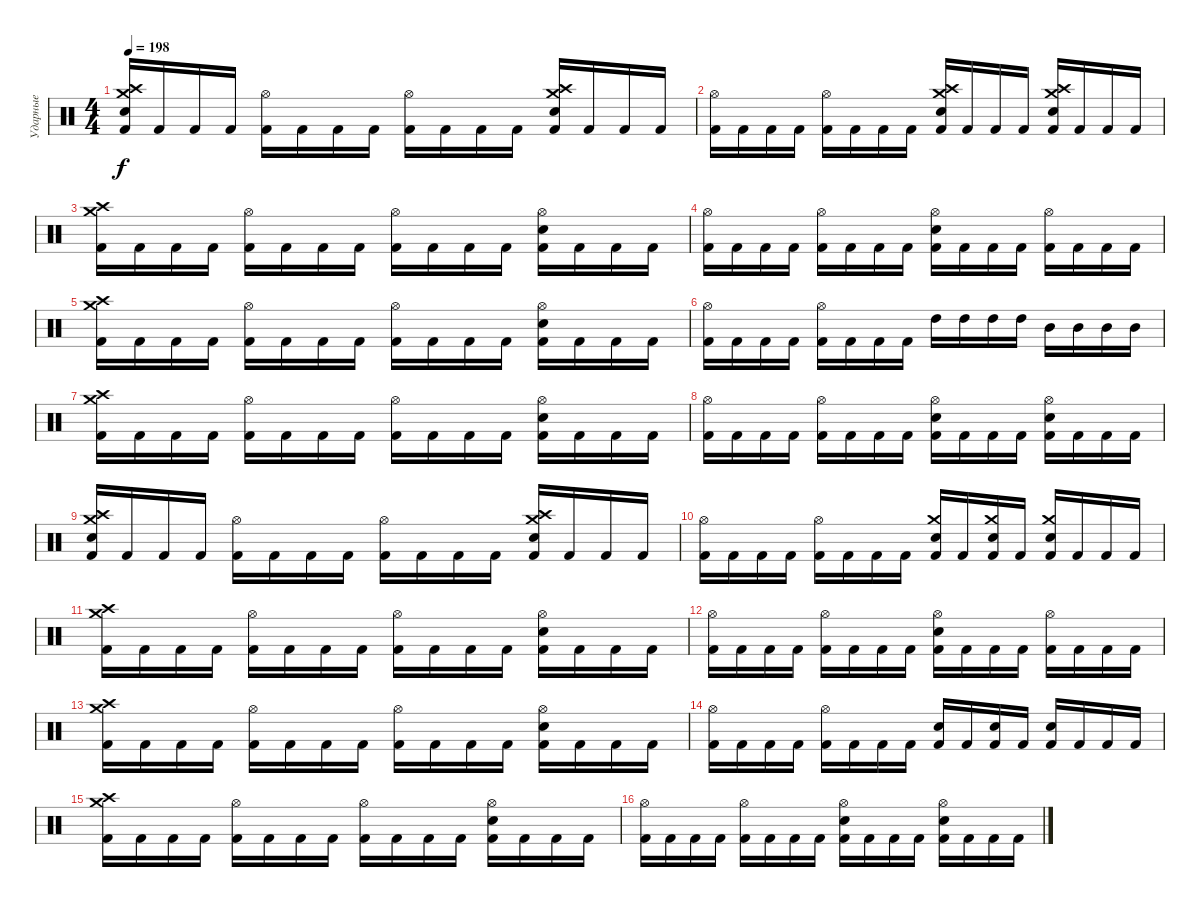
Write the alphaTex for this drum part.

\track ("Ударные" "Ударные") {instrument percussion}
\staff {score}
\articulation defaults
\ts (4 4)
\tempo 198
\clef neutral
\ks c
("Kick (hit) 2" "Crash medium (hit)" "Crash high (hit)" "Electric Snare (hit)").16{dy f} "Kick (hit) 2".16 "Kick (hit) 2".16 "Kick (hit) 2".16 ("Kick (hit) 2" "Hi-Hat (open)").16 "Kick (hit) 2".16 "Kick (hit) 2".16 "Kick (hit) 2".16 ("Kick (hit) 2" "Hi-Hat (open)").16 "Kick (hit) 2".16 "Kick (hit) 2".16 "Kick (hit) 2".16 ("Kick (hit) 2" "Crash medium (hit)" "Crash high (hit)" "Electric Snare (hit)").16 "Kick (hit) 2".16 "Kick (hit) 2".16 "Kick (hit) 2".16 |
("Kick (hit) 2" "Hi-Hat (open)").16 "Kick (hit) 2".16 "Kick (hit) 2".16 "Kick (hit) 2".16 ("Kick (hit) 2" "Hi-Hat (open)").16 "Kick (hit) 2".16 "Kick (hit) 2".16 "Kick (hit) 2".16 ("Kick (hit) 2" "Crash high (hit)" "Electric Snare (hit)" "Crash medium (hit)").16 "Kick (hit) 2".16 "Kick (hit) 2".16 "Kick (hit) 2".16 ("Kick (hit) 2" "Crash high (hit)" "Electric Snare (hit)" "Crash medium (hit)").16 "Kick (hit) 2".16 "Kick (hit) 2".16 "Kick (hit) 2".16 |
("Kick (hit) 2" "Crash medium (hit)" "Crash high (hit)").16 "Kick (hit) 2".16 "Kick (hit) 2".16 "Kick (hit) 2".16 ("Kick (hit) 2" "Hi-Hat (open)").16 "Kick (hit) 2".16 "Kick (hit) 2".16 "Kick (hit) 2".16 ("Kick (hit) 2" "Hi-Hat (open)").16 "Kick (hit) 2".16 "Kick (hit) 2".16 "Kick (hit) 2".16 ("Kick (hit) 2" "Hi-Hat (open)" "Electric Snare (hit)").16 "Kick (hit) 2".16 "Kick (hit) 2".16 "Kick (hit) 2".16 |
("Kick (hit) 2" "Hi-Hat (open)").16 "Kick (hit) 2".16 "Kick (hit) 2".16 "Kick (hit) 2".16 ("Kick (hit) 2" "Hi-Hat (open)").16 "Kick (hit) 2".16 "Kick (hit) 2".16 "Kick (hit) 2".16 ("Kick (hit) 2" "Hi-Hat (open)" "Electric Snare (hit)").16 "Kick (hit) 2".16 "Kick (hit) 2".16 "Kick (hit) 2".16 ("Kick (hit) 2" "Hi-Hat (open)").16 "Kick (hit) 2".16 "Kick (hit) 2".16 "Kick (hit) 2".16 |
("Kick (hit) 2" "Crash medium (hit)" "Crash high (hit)").16 "Kick (hit) 2".16 "Kick (hit) 2".16 "Kick (hit) 2".16 ("Kick (hit) 2" "Hi-Hat (open)").16 "Kick (hit) 2".16 "Kick (hit) 2".16 "Kick (hit) 2".16 ("Kick (hit) 2" "Hi-Hat (open)").16 "Kick (hit) 2".16 "Kick (hit) 2".16 "Kick (hit) 2".16 ("Kick (hit) 2" "Hi-Hat (open)" "Electric Snare (hit)").16 "Kick (hit) 2".16 "Kick (hit) 2".16 "Kick (hit) 2".16 |
("Kick (hit) 2" "Hi-Hat (open)").16 "Kick (hit) 2".16 "Kick (hit) 2".16 "Kick (hit) 2".16 ("Kick (hit) 2" "Hi-Hat (open)").16 "Kick (hit) 2".16 "Kick (hit) 2".16 "Kick (hit) 2".16 "High Tom (hit)".16 "High Tom (hit)".16 "High Tom (hit)".16 "High Tom (hit)".16 "Mid Tom (hit)".16 "Mid Tom (hit)".16 "Mid Tom (hit)".16 "Mid Tom (hit)".16 |
("Kick (hit) 2" "Crash medium (hit)" "Crash high (hit)").16 "Kick (hit) 2".16 "Kick (hit) 2".16 "Kick (hit) 2".16 ("Kick (hit) 2" "Hi-Hat (open)").16 "Kick (hit) 2".16 "Kick (hit) 2".16 "Kick (hit) 2".16 ("Kick (hit) 2" "Hi-Hat (open)").16 "Kick (hit) 2".16 "Kick (hit) 2".16 "Kick (hit) 2".16 ("Kick (hit) 2" "Hi-Hat (open)" "Electric Snare (hit)").16 "Kick (hit) 2".16 "Kick (hit) 2".16 "Kick (hit) 2".16 |
("Kick (hit) 2" "Hi-Hat (open)").16 "Kick (hit) 2".16 "Kick (hit) 2".16 "Kick (hit) 2".16 ("Kick (hit) 2" "Hi-Hat (open)").16 "Kick (hit) 2".16 "Kick (hit) 2".16 "Kick (hit) 2".16 ("Kick (hit) 2" "Hi-Hat (open)" "Electric Snare (hit)").16 "Kick (hit) 2".16 "Kick (hit) 2".16 "Kick (hit) 2".16 ("Kick (hit) 2" "Hi-Hat (open)" "Electric Snare (hit)").16 "Kick (hit) 2".16 "Kick (hit) 2".16 "Kick (hit) 2".16 |
("Kick (hit) 2" "Crash medium (hit)" "Crash high (hit)" "Electric Snare (hit)").16 "Kick (hit) 2".16 "Kick (hit) 2".16 "Kick (hit) 2".16 ("Kick (hit) 2" "Hi-Hat (open)").16 "Kick (hit) 2".16 "Kick (hit) 2".16 "Kick (hit) 2".16 ("Kick (hit) 2" "Hi-Hat (open)").16 "Kick (hit) 2".16 "Kick (hit) 2".16 "Kick (hit) 2".16 ("Kick (hit) 2" "Crash medium (hit)" "Crash high (hit)" "Electric Snare (hit)").16 "Kick (hit) 2".16 "Kick (hit) 2".16 "Kick (hit) 2".16 |
("Kick (hit) 2" "Hi-Hat (open)").16 "Kick (hit) 2".16 "Kick (hit) 2".16 "Kick (hit) 2".16 ("Kick (hit) 2" "Hi-Hat (open)").16 "Kick (hit) 2".16 "Kick (hit) 2".16 "Kick (hit) 2".16 ("Kick (hit) 2" "Electric Snare (hit)" "Crash medium (hit)").16 "Kick (hit) 2".16 ("Kick (hit) 2" "Electric Snare (hit)" "Crash medium (hit)").16 "Kick (hit) 2".16 ("Kick (hit) 2" "Electric Snare (hit)" "Crash medium (hit)").16 "Kick (hit) 2".16 "Kick (hit) 2".16 "Kick (hit) 2".16 |
("Kick (hit) 2" "Crash medium (hit)" "Crash high (hit)").16 "Kick (hit) 2".16 "Kick (hit) 2".16 "Kick (hit) 2".16 ("Kick (hit) 2" "Hi-Hat (open)").16 "Kick (hit) 2".16 "Kick (hit) 2".16 "Kick (hit) 2".16 ("Kick (hit) 2" "Hi-Hat (open)").16 "Kick (hit) 2".16 "Kick (hit) 2".16 "Kick (hit) 2".16 ("Kick (hit) 2" "Hi-Hat (open)" "Electric Snare (hit)").16 "Kick (hit) 2".16 "Kick (hit) 2".16 "Kick (hit) 2".16 |
("Kick (hit) 2" "Hi-Hat (open)").16 "Kick (hit) 2".16 "Kick (hit) 2".16 "Kick (hit) 2".16 ("Kick (hit) 2" "Hi-Hat (open)").16 "Kick (hit) 2".16 "Kick (hit) 2".16 "Kick (hit) 2".16 ("Kick (hit) 2" "Hi-Hat (open)" "Electric Snare (hit)").16 "Kick (hit) 2".16 "Kick (hit) 2".16 "Kick (hit) 2".16 ("Kick (hit) 2" "Hi-Hat (open)").16 "Kick (hit) 2".16 "Kick (hit) 2".16 "Kick (hit) 2".16 |
("Kick (hit) 2" "Crash medium (hit)" "Crash high (hit)").16 "Kick (hit) 2".16 "Kick (hit) 2".16 "Kick (hit) 2".16 ("Kick (hit) 2" "Hi-Hat (open)").16 "Kick (hit) 2".16 "Kick (hit) 2".16 "Kick (hit) 2".16 ("Kick (hit) 2" "Hi-Hat (open)").16 "Kick (hit) 2".16 "Kick (hit) 2".16 "Kick (hit) 2".16 ("Kick (hit) 2" "Hi-Hat (open)" "Electric Snare (hit)").16 "Kick (hit) 2".16 "Kick (hit) 2".16 "Kick (hit) 2".16 |
("Kick (hit) 2" "Hi-Hat (open)").16 "Kick (hit) 2".16 "Kick (hit) 2".16 "Kick (hit) 2".16 ("Kick (hit) 2" "Hi-Hat (open)").16 "Kick (hit) 2".16 "Kick (hit) 2".16 "Kick (hit) 2".16 ("Kick (hit) 2" "Electric Snare (hit)").16 "Kick (hit) 2".16 ("Kick (hit) 2" "Electric Snare (hit)").16 "Kick (hit) 2".16 ("Kick (hit) 2" "Electric Snare (hit)").16 "Kick (hit) 2".16 "Kick (hit) 2".16 "Kick (hit) 2".16 |
("Kick (hit) 2" "Crash medium (hit)" "Crash high (hit)").16 "Kick (hit) 2".16 "Kick (hit) 2".16 "Kick (hit) 2".16 ("Kick (hit) 2" "Hi-Hat (open)").16 "Kick (hit) 2".16 "Kick (hit) 2".16 "Kick (hit) 2".16 ("Kick (hit) 2" "Hi-Hat (open)").16 "Kick (hit) 2".16 "Kick (hit) 2".16 "Kick (hit) 2".16 ("Kick (hit) 2" "Hi-Hat (open)" "Electric Snare (hit)").16 "Kick (hit) 2".16 "Kick (hit) 2".16 "Kick (hit) 2".16 |
("Kick (hit) 2" "Hi-Hat (open)").16 "Kick (hit) 2".16 "Kick (hit) 2".16 "Kick (hit) 2".16 ("Kick (hit) 2" "Hi-Hat (open)").16 "Kick (hit) 2".16 "Kick (hit) 2".16 "Kick (hit) 2".16 ("Kick (hit) 2" "Hi-Hat (open)" "Electric Snare (hit)").16 "Kick (hit) 2".16 "Kick (hit) 2".16 "Kick (hit) 2".16 ("Kick (hit) 2" "Hi-Hat (open)" "Electric Snare (hit)").16 "Kick (hit) 2".16 "Kick (hit) 2".16 "Kick (hit) 2".16
